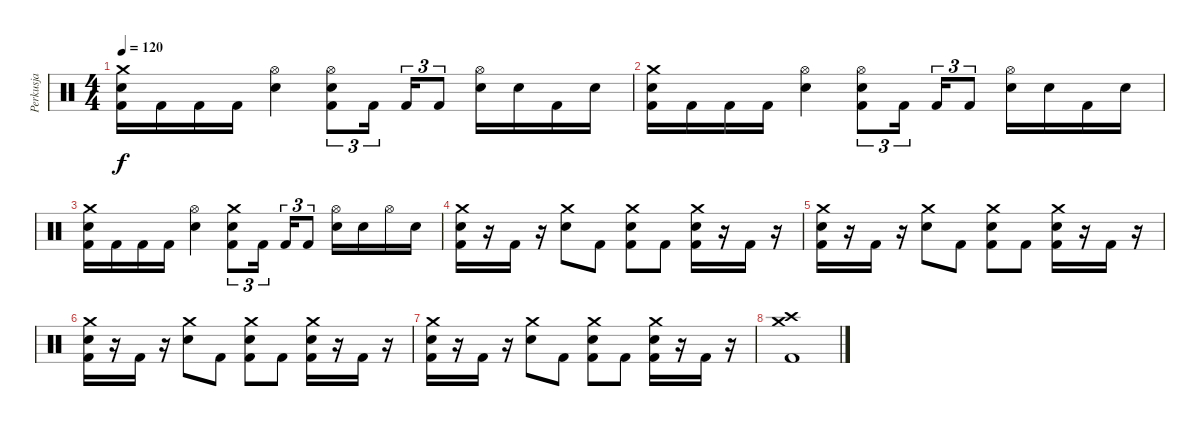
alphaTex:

\track ("Perkusja" "Perkusja") {instrument percussion}
\staff {score}
\articulation defaults
\ts (4 4)
\tempo 120
\clef neutral
\ks c
("Crash medium (hit)" "Snare (hit) 2" "Kick (hit) 2").16{dy f} "Kick (hit) 2".16 "Kick (hit) 2".16 "Kick (hit) 2".16 ("Hi-Hat (open)" "Snare (hit) 2").4 ("Hi-Hat (open)" "Snare (hit) 2" "Kick (hit) 2").8{tu (3 2)} "Kick (hit) 2".16{tu (3 2)} "Kick (hit) 2".16{tu (3 2)} "Kick (hit) 2".8{tu (3 2)} ("Hi-Hat (open)" "Snare (hit) 2").16 "Snare (hit) 2".16 "Kick (hit) 2".16 "Snare (hit) 2".16 |
("Crash medium (hit)" "Snare (hit) 2" "Kick (hit) 2").16 "Kick (hit) 2".16 "Kick (hit) 2".16 "Kick (hit) 2".16 ("Hi-Hat (open)" "Snare (hit) 2").4 ("Hi-Hat (open)" "Snare (hit) 2" "Kick (hit) 2").8{tu (3 2)} "Kick (hit) 2".16{tu (3 2)} "Kick (hit) 2".16{tu (3 2)} "Kick (hit) 2".8{tu (3 2)} ("Hi-Hat (open)" "Snare (hit) 2").16 "Snare (hit) 2".16 "Kick (hit) 2".16 "Snare (hit) 2".16 |
("Crash medium (hit)" "Snare (hit) 2" "Kick (hit) 2").16 "Kick (hit) 2".16 "Kick (hit) 2".16 "Kick (hit) 2".16 ("Hi-Hat (open)" "Snare (hit) 2").4 ("Crash medium (hit)" "Snare (hit) 2" "Kick (hit) 2").8{tu (3 2)} "Kick (hit) 2".16{tu (3 2)} "Kick (hit) 2".16{tu (3 2)} "Kick (hit) 2".8{tu (3 2)} ("Hi-Hat (open)" "Snare (hit) 2").16 "Snare (hit) 2".16 "Hi-Hat (open)".16 "Snare (hit) 2".16 |
("Crash medium (hit)" "Snare (hit) 2" "Kick (hit) 2").16 r.16 "Kick (hit) 2".16 r.16 ("Crash medium (hit)" "Snare (hit) 2").8 "Kick (hit) 2".8 ("Crash medium (hit)" "Snare (hit) 2" "Kick (hit) 2").8 "Kick (hit) 2".8 ("Crash medium (hit)" "Snare (hit) 2" "Kick (hit) 2").16 r.16 "Kick (hit) 2".16 r.16 |
("Crash medium (hit)" "Snare (hit) 2" "Kick (hit) 2").16 r.16 "Kick (hit) 2".16 r.16 ("Crash medium (hit)" "Snare (hit) 2").8 "Kick (hit) 2".8 ("Crash medium (hit)" "Snare (hit) 2" "Kick (hit) 2").8 "Kick (hit) 2".8 ("Crash medium (hit)" "Snare (hit) 2" "Kick (hit) 2").16 r.16 "Kick (hit) 2".16 r.16 |
("Crash medium (hit)" "Snare (hit) 2" "Kick (hit) 2").16 r.16 "Kick (hit) 2".16 r.16 ("Crash medium (hit)" "Snare (hit) 2").8 "Kick (hit) 2".8 ("Crash medium (hit)" "Snare (hit) 2" "Kick (hit) 2").8 "Kick (hit) 2".8 ("Crash medium (hit)" "Snare (hit) 2" "Kick (hit) 2").16 r.16 "Kick (hit) 2".16 r.16 |
("Crash medium (hit)" "Snare (hit) 2" "Kick (hit) 2").16 r.16 "Kick (hit) 2".16 r.16 ("Crash medium (hit)" "Snare (hit) 2").8 "Kick (hit) 2".8 ("Crash medium (hit)" "Snare (hit) 2" "Kick (hit) 2").8 "Kick (hit) 2".8 ("Crash medium (hit)" "Snare (hit) 2" "Kick (hit) 2").16 r.16 "Kick (hit) 2".16 r.16 |
("Crash high (hit)" "Crash medium (hit)" "Kick (hit) 2").1
